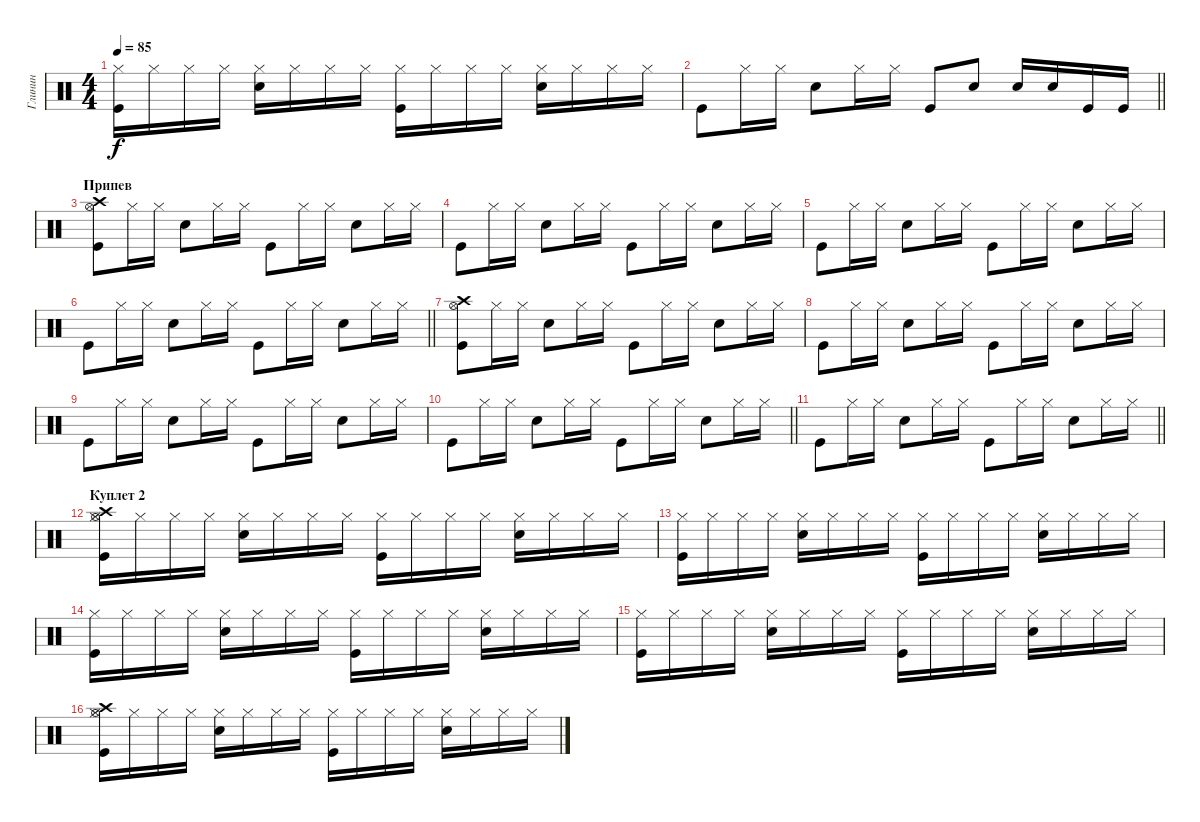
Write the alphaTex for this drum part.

\track ("Глинин" "Глинин") {instrument percussion}
\staff {score}
\articulation defaults
\ts (4 4)
\tempo 85
\clef neutral
\ks c
("Hi-Hat (closed)" "Kick (hit)").16{dy f} "Hi-Hat (closed)".16 "Hi-Hat (closed)".16 "Hi-Hat (closed)".16 ("Hi-Hat (closed)" "Snare (hit) 2").16 "Hi-Hat (closed)".16 "Hi-Hat (closed)".16 "Hi-Hat (closed)".16 ("Hi-Hat (closed)" "Kick (hit)").16 "Hi-Hat (closed)".16 "Hi-Hat (closed)".16 "Hi-Hat (closed)".16 ("Hi-Hat (closed)" "Snare (hit) 2").16 "Hi-Hat (closed)".16 "Hi-Hat (closed)".16 "Hi-Hat (closed)".16 |
\barLineRight lightlight "Kick (hit)".8 "Hi-Hat (closed)".16 "Hi-Hat (closed)".16 "Snare (hit) 2".8 "Hi-Hat (closed)".16 "Hi-Hat (closed)".16 "Kick (hit)".8 "Snare (hit) 2".8 "Snare (hit) 2".16 "Snare (hit) 2".16 "Kick (hit)".16 "Kick (hit)".16
|
\section ("" "Припев")
("Kick (hit)" "Hi-Hat (open)" "Crash high (hit)").8 "Hi-Hat (closed)".16 "Hi-Hat (closed)".16 "Snare (hit) 2".8 "Hi-Hat (closed)".16 "Hi-Hat (closed)".16 "Kick (hit)".8 "Hi-Hat (closed)".16 "Hi-Hat (closed)".16 "Snare (hit) 2".8 "Hi-Hat (closed)".16 "Hi-Hat (closed)".16 |
"Kick (hit)".8 "Hi-Hat (closed)".16 "Hi-Hat (closed)".16 "Snare (hit) 2".8 "Hi-Hat (closed)".16 "Hi-Hat (closed)".16 "Kick (hit)".8 "Hi-Hat (closed)".16 "Hi-Hat (closed)".16 "Snare (hit) 2".8 "Hi-Hat (closed)".16 "Hi-Hat (closed)".16 |
"Kick (hit)".8 "Hi-Hat (closed)".16 "Hi-Hat (closed)".16 "Snare (hit) 2".8 "Hi-Hat (closed)".16 "Hi-Hat (closed)".16 "Kick (hit)".8 "Hi-Hat (closed)".16 "Hi-Hat (closed)".16 "Snare (hit) 2".8 "Hi-Hat (closed)".16 "Hi-Hat (closed)".16 |
\barLineRight lightlight "Kick (hit)".8 "Hi-Hat (closed)".16 "Hi-Hat (closed)".16 "Snare (hit) 2".8 "Hi-Hat (closed)".16 "Hi-Hat (closed)".16 "Kick (hit)".8 "Hi-Hat (closed)".16 "Hi-Hat (closed)".16 "Snare (hit) 2".8 "Hi-Hat (closed)".16 "Hi-Hat (closed)".16
|
("Kick (hit)" "Hi-Hat (open)" "Crash high (hit)").8 "Hi-Hat (closed)".16 "Hi-Hat (closed)".16 "Snare (hit) 2".8 "Hi-Hat (closed)".16 "Hi-Hat (closed)".16 "Kick (hit)".8 "Hi-Hat (closed)".16 "Hi-Hat (closed)".16 "Snare (hit) 2".8 "Hi-Hat (closed)".16 "Hi-Hat (closed)".16 |
"Kick (hit)".8 "Hi-Hat (closed)".16 "Hi-Hat (closed)".16 "Snare (hit) 2".8 "Hi-Hat (closed)".16 "Hi-Hat (closed)".16 "Kick (hit)".8 "Hi-Hat (closed)".16 "Hi-Hat (closed)".16 "Snare (hit) 2".8 "Hi-Hat (closed)".16 "Hi-Hat (closed)".16 |
"Kick (hit)".8 "Hi-Hat (closed)".16 "Hi-Hat (closed)".16 "Snare (hit) 2".8 "Hi-Hat (closed)".16 "Hi-Hat (closed)".16 "Kick (hit)".8 "Hi-Hat (closed)".16 "Hi-Hat (closed)".16 "Snare (hit) 2".8 "Hi-Hat (closed)".16 "Hi-Hat (closed)".16 |
\barLineRight lightlight "Kick (hit)".8 "Hi-Hat (closed)".16 "Hi-Hat (closed)".16 "Snare (hit) 2".8 "Hi-Hat (closed)".16 "Hi-Hat (closed)".16 "Kick (hit)".8 "Hi-Hat (closed)".16 "Hi-Hat (closed)".16 "Snare (hit) 2".8 "Hi-Hat (closed)".16 "Hi-Hat (closed)".16
|
\barLineRight lightlight "Kick (hit)".8 "Hi-Hat (closed)".16 "Hi-Hat (closed)".16 "Snare (hit) 2".8 "Hi-Hat (closed)".16 "Hi-Hat (closed)".16 "Kick (hit)".8 "Hi-Hat (closed)".16 "Hi-Hat (closed)".16 "Snare (hit) 2".8 "Hi-Hat (closed)".16 "Hi-Hat (closed)".16
|
\section ("" "Куплет 2")
("Hi-Hat (closed)" "Kick (hit)" "Hi-Hat (open)" "Crash high (hit)").16 "Hi-Hat (closed)".16 "Hi-Hat (closed)".16 "Hi-Hat (closed)".16 ("Hi-Hat (closed)" "Snare (hit) 2").16 "Hi-Hat (closed)".16 "Hi-Hat (closed)".16 "Hi-Hat (closed)".16 ("Hi-Hat (closed)" "Kick (hit)").16 "Hi-Hat (closed)".16 "Hi-Hat (closed)".16 "Hi-Hat (closed)".16 ("Hi-Hat (closed)" "Snare (hit) 2").16 "Hi-Hat (closed)".16 "Hi-Hat (closed)".16 "Hi-Hat (closed)".16 |
("Hi-Hat (closed)" "Kick (hit)").16 "Hi-Hat (closed)".16 "Hi-Hat (closed)".16 "Hi-Hat (closed)".16 ("Hi-Hat (closed)" "Snare (hit) 2").16 "Hi-Hat (closed)".16 "Hi-Hat (closed)".16 "Hi-Hat (closed)".16 ("Hi-Hat (closed)" "Kick (hit)").16 "Hi-Hat (closed)".16 "Hi-Hat (closed)".16 "Hi-Hat (closed)".16 ("Hi-Hat (closed)" "Snare (hit) 2").16 "Hi-Hat (closed)".16 "Hi-Hat (closed)".16 "Hi-Hat (closed)".16 |
("Hi-Hat (closed)" "Kick (hit)").16 "Hi-Hat (closed)".16 "Hi-Hat (closed)".16 "Hi-Hat (closed)".16 ("Hi-Hat (closed)" "Snare (hit) 2").16 "Hi-Hat (closed)".16 "Hi-Hat (closed)".16 "Hi-Hat (closed)".16 ("Hi-Hat (closed)" "Kick (hit)").16 "Hi-Hat (closed)".16 "Hi-Hat (closed)".16 "Hi-Hat (closed)".16 ("Hi-Hat (closed)" "Snare (hit) 2").16 "Hi-Hat (closed)".16 "Hi-Hat (closed)".16 "Hi-Hat (closed)".16 |
("Hi-Hat (closed)" "Kick (hit)").16 "Hi-Hat (closed)".16 "Hi-Hat (closed)".16 "Hi-Hat (closed)".16 ("Hi-Hat (closed)" "Snare (hit) 2").16 "Hi-Hat (closed)".16 "Hi-Hat (closed)".16 "Hi-Hat (closed)".16 ("Hi-Hat (closed)" "Kick (hit)").16 "Hi-Hat (closed)".16 "Hi-Hat (closed)".16 "Hi-Hat (closed)".16 ("Hi-Hat (closed)" "Snare (hit) 2").16 "Hi-Hat (closed)".16 "Hi-Hat (closed)".16 "Hi-Hat (closed)".16 |
("Hi-Hat (closed)" "Kick (hit)" "Hi-Hat (open)" "Crash high (hit)").16 "Hi-Hat (closed)".16 "Hi-Hat (closed)".16 "Hi-Hat (closed)".16 ("Hi-Hat (closed)" "Snare (hit) 2").16 "Hi-Hat (closed)".16 "Hi-Hat (closed)".16 "Hi-Hat (closed)".16 ("Hi-Hat (closed)" "Kick (hit)").16 "Hi-Hat (closed)".16 "Hi-Hat (closed)".16 "Hi-Hat (closed)".16 ("Hi-Hat (closed)" "Snare (hit) 2").16 "Hi-Hat (closed)".16 "Hi-Hat (closed)".16 "Hi-Hat (closed)".16
